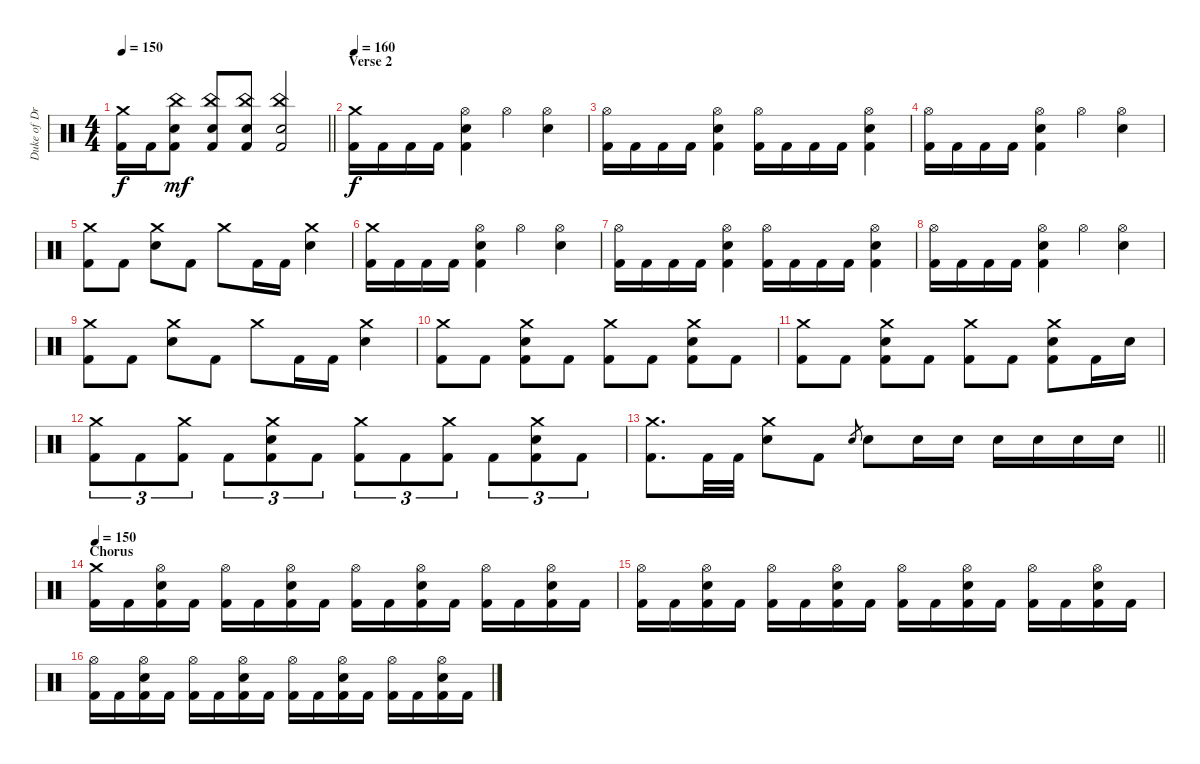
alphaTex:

\track ("Duke of Drumington" "Duke of Dr") {instrument percussion}
\staff {score}
\articulation defaults
\ts (4 4)
\tempo 150
\clef neutral
\barLineRight lightlight
\ks c
("Crash medium (hit)" "Kick (hit) 2").16{dy f} "Kick (hit) 2".16 ("China (hit)" "Electric Snare (hit)" "Kick (hit) 2").8{dy mf} ("China (hit)" "Electric Snare (hit)" "Kick (hit) 2").8 ("China (hit)" "Electric Snare (hit)" "Kick (hit) 2").8 ("China (hit)" "Electric Snare (hit)" "Kick (hit) 2").2 |
\section ("" "Verse 2")
\tempo 160
("Crash medium (hit)" "Kick (hit) 2").16{dy f} "Kick (hit) 2".16 "Kick (hit) 2".16 "Kick (hit) 2".16 ("Hi-Hat (open)" "Electric Snare (hit)" "Kick (hit) 2").4 "Hi-Hat (open)".4 ("Hi-Hat (open)" "Electric Snare (hit)").4 |
("Hi-Hat (open)" "Kick (hit) 2").16 "Kick (hit) 2".16 "Kick (hit) 2".16 "Kick (hit) 2".16 ("Hi-Hat (open)" "Electric Snare (hit)" "Kick (hit) 2").4 ("Hi-Hat (open)" "Kick (hit) 2").16 "Kick (hit) 2".16 "Kick (hit) 2".16 "Kick (hit) 2".16 ("Hi-Hat (open)" "Electric Snare (hit)" "Kick (hit) 2").4 |
("Hi-Hat (open)" "Kick (hit) 2").16 "Kick (hit) 2".16 "Kick (hit) 2".16 "Kick (hit) 2".16 ("Hi-Hat (open)" "Electric Snare (hit)" "Kick (hit) 2").4 "Hi-Hat (open)".4 ("Hi-Hat (open)" "Electric Snare (hit)").4 |
("Crash medium (hit)" "Kick (hit) 2").8 "Kick (hit) 2".8 ("Crash medium (hit)" "Electric Snare (hit)").8 "Kick (hit) 2".8 "Crash medium (hit)".8 "Kick (hit) 2".16 "Kick (hit) 2".16 ("Crash medium (hit)" "Electric Snare (hit)").4 |
("Crash medium (hit)" "Kick (hit) 2").16 "Kick (hit) 2".16 "Kick (hit) 2".16 "Kick (hit) 2".16 ("Hi-Hat (open)" "Electric Snare (hit)" "Kick (hit) 2").4 "Hi-Hat (open)".4 ("Hi-Hat (open)" "Electric Snare (hit)").4 |
("Hi-Hat (open)" "Kick (hit) 2").16 "Kick (hit) 2".16 "Kick (hit) 2".16 "Kick (hit) 2".16 ("Hi-Hat (open)" "Electric Snare (hit)" "Kick (hit) 2").4 ("Hi-Hat (open)" "Kick (hit) 2").16 "Kick (hit) 2".16 "Kick (hit) 2".16 "Kick (hit) 2".16 ("Hi-Hat (open)" "Electric Snare (hit)" "Kick (hit) 2").4 |
("Hi-Hat (open)" "Kick (hit) 2").16 "Kick (hit) 2".16 "Kick (hit) 2".16 "Kick (hit) 2".16 ("Hi-Hat (open)" "Electric Snare (hit)" "Kick (hit) 2").4 "Hi-Hat (open)".4 ("Hi-Hat (open)" "Electric Snare (hit)").4 |
("Crash medium (hit)" "Kick (hit) 2").8 "Kick (hit) 2".8 ("Crash medium (hit)" "Electric Snare (hit)").8 "Kick (hit) 2".8 "Crash medium (hit)".8 "Kick (hit) 2".16 "Kick (hit) 2".16 ("Crash medium (hit)" "Electric Snare (hit)").4 |
("Crash medium (hit)" "Kick (hit) 2").8 "Kick (hit) 2".8 ("Crash medium (hit)" "Electric Snare (hit)" "Kick (hit) 2").8 "Kick (hit) 2".8 ("Crash medium (hit)" "Kick (hit) 2").8 "Kick (hit) 2".8 ("Crash medium (hit)" "Electric Snare (hit)" "Kick (hit) 2").8 "Kick (hit) 2".8 |
("Crash medium (hit)" "Kick (hit) 2").8 "Kick (hit) 2".8 ("Crash medium (hit)" "Electric Snare (hit)" "Kick (hit) 2").8 "Kick (hit) 2".8 ("Crash medium (hit)" "Kick (hit) 2").8 "Kick (hit) 2".8 ("Crash medium (hit)" "Electric Snare (hit)" "Kick (hit) 2").8 "Kick (hit) 2".16 "Electric Snare (hit)".16 |
("Crash medium (hit)" "Kick (hit) 2").8{tu (3 2)} "Kick (hit) 2".8{tu (3 2)} ("Crash medium (hit)" "Kick (hit) 2").8{tu (3 2)} "Kick (hit) 2".8{tu (3 2)} ("Crash medium (hit)" "Electric Snare (hit)" "Kick (hit) 2").8{tu (3 2)} "Kick (hit) 2".8{tu (3 2)} ("Crash medium (hit)" "Kick (hit) 2").8{tu (3 2)} "Kick (hit) 2".8{tu (3 2)} ("Crash medium (hit)" "Kick (hit) 2").8{tu (3 2)} "Kick (hit) 2".8{tu (3 2)} ("Crash medium (hit)" "Electric Snare (hit)" "Kick (hit) 2").8{tu (3 2)} "Kick (hit) 2".8{tu (3 2)} |
\barLineRight lightlight
("Crash medium (hit)" "Kick (hit) 2").8{d} "Kick (hit) 2".32 "Kick (hit) 2".32 ("Crash medium (hit)" "Electric Snare (hit)").8 "Kick (hit) 2".8 "Electric Snare (hit)".8{gr} "Electric Snare (hit)".8 "Electric Snare (hit)".16 "Electric Snare (hit)".16 "Electric Snare (hit)".16 "Electric Snare (hit)".16 "Electric Snare (hit)".16 "Electric Snare (hit)".16 |
\section ("" "Chorus")
\tempo 150
("Crash medium (hit)" "Kick (hit) 2").16 "Kick (hit) 2".16 ("Hi-Hat (open)" "Electric Snare (hit)" "Kick (hit) 2").16 "Kick (hit) 2".16 ("Hi-Hat (open)" "Kick (hit) 2").16 "Kick (hit) 2".16 ("Hi-Hat (open)" "Electric Snare (hit)" "Kick (hit) 2").16 "Kick (hit) 2".16 ("Hi-Hat (open)" "Kick (hit) 2").16 "Kick (hit) 2".16 ("Hi-Hat (open)" "Electric Snare (hit)" "Kick (hit) 2").16 "Kick (hit) 2".16 ("Hi-Hat (open)" "Kick (hit) 2").16 "Kick (hit) 2".16 ("Hi-Hat (open)" "Electric Snare (hit)" "Kick (hit) 2").16 "Kick (hit) 2".16 |
("Hi-Hat (open)" "Kick (hit) 2").16 "Kick (hit) 2".16 ("Hi-Hat (open)" "Electric Snare (hit)" "Kick (hit) 2").16 "Kick (hit) 2".16 ("Hi-Hat (open)" "Kick (hit) 2").16 "Kick (hit) 2".16 ("Hi-Hat (open)" "Electric Snare (hit)" "Kick (hit) 2").16 "Kick (hit) 2".16 ("Hi-Hat (open)" "Kick (hit) 2").16 "Kick (hit) 2".16 ("Hi-Hat (open)" "Electric Snare (hit)" "Kick (hit) 2").16 "Kick (hit) 2".16 ("Hi-Hat (open)" "Kick (hit) 2").16 "Kick (hit) 2".16 ("Hi-Hat (open)" "Electric Snare (hit)" "Kick (hit) 2").16 "Kick (hit) 2".16 |
("Hi-Hat (open)" "Kick (hit) 2").16 "Kick (hit) 2".16 ("Hi-Hat (open)" "Electric Snare (hit)" "Kick (hit) 2").16 "Kick (hit) 2".16 ("Hi-Hat (open)" "Kick (hit) 2").16 "Kick (hit) 2".16 ("Hi-Hat (open)" "Electric Snare (hit)" "Kick (hit) 2").16 "Kick (hit) 2".16 ("Hi-Hat (open)" "Kick (hit) 2").16 "Kick (hit) 2".16 ("Hi-Hat (open)" "Electric Snare (hit)" "Kick (hit) 2").16 "Kick (hit) 2".16 ("Hi-Hat (open)" "Kick (hit) 2").16 "Kick (hit) 2".16 ("Hi-Hat (open)" "Electric Snare (hit)" "Kick (hit) 2").16 "Kick (hit) 2".16
